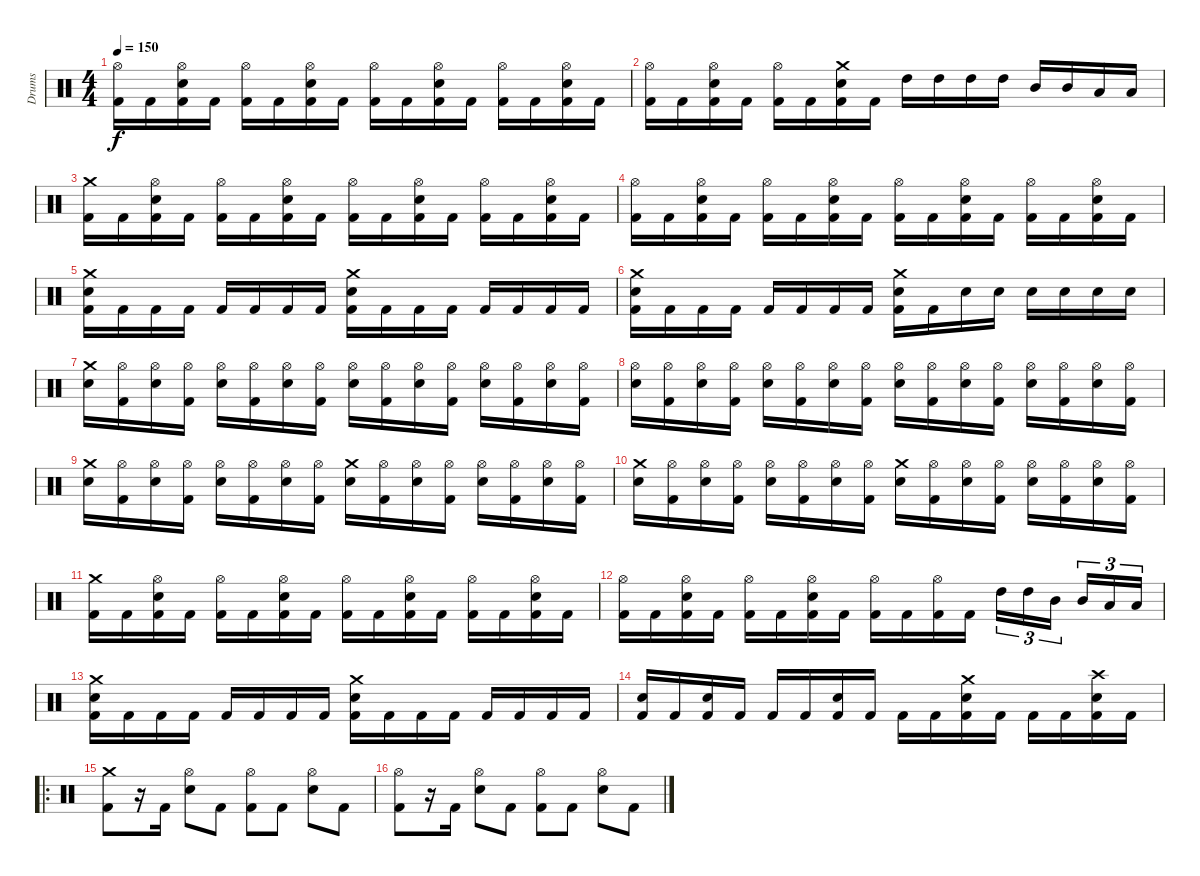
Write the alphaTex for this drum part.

\track ("Drums" "Drums") {instrument percussion}
\staff {score}
\articulation defaults
\ts (4 4)
\tempo 150
\clef neutral
\ks c
("Hi-Hat (open)" "Kick (hit) 2").16{dy f} "Kick (hit) 2".16 ("Hi-Hat (open)" "Electric Snare (hit)" "Kick (hit) 2").16 "Kick (hit) 2".16 ("Hi-Hat (open)" "Kick (hit) 2").16 "Kick (hit) 2".16 ("Hi-Hat (open)" "Electric Snare (hit)" "Kick (hit) 2").16 "Kick (hit) 2".16 ("Hi-Hat (open)" "Kick (hit) 2").16 "Kick (hit) 2".16 ("Hi-Hat (open)" "Electric Snare (hit)" "Kick (hit) 2").16 "Kick (hit) 2".16 ("Hi-Hat (open)" "Kick (hit) 2").16 "Kick (hit) 2".16 ("Hi-Hat (open)" "Electric Snare (hit)" "Kick (hit) 2").16 "Kick (hit) 2".16 |
("Hi-Hat (open)" "Kick (hit) 2").16 "Kick (hit) 2".16 ("Hi-Hat (open)" "Electric Snare (hit)" "Kick (hit) 2").16 "Kick (hit) 2".16 ("Hi-Hat (open)" "Kick (hit) 2").16 "Kick (hit) 2".16 ("Crash medium (hit)" "Electric Snare (hit)" "Kick (hit) 2").16 "Kick (hit) 2".16 "High Tom (hit)".16 "High Tom (hit)".16 "High Tom (hit)".16 "High Tom (hit)".16 "Mid Tom (hit)".16 "Mid Tom (hit)".16 "Low Tom (hit)".16 "Low Tom (hit)".16 |
("Crash medium (hit)" "Kick (hit) 2").16 "Kick (hit) 2".16 ("Hi-Hat (open)" "Electric Snare (hit)" "Kick (hit) 2").16 "Kick (hit) 2".16 ("Hi-Hat (open)" "Kick (hit) 2").16 "Kick (hit) 2".16 ("Hi-Hat (open)" "Electric Snare (hit)" "Kick (hit) 2").16 "Kick (hit) 2".16 ("Hi-Hat (open)" "Kick (hit) 2").16 "Kick (hit) 2".16 ("Hi-Hat (open)" "Electric Snare (hit)" "Kick (hit) 2").16 "Kick (hit) 2".16 ("Hi-Hat (open)" "Kick (hit) 2").16 "Kick (hit) 2".16 ("Hi-Hat (open)" "Electric Snare (hit)" "Kick (hit) 2").16 "Kick (hit) 2".16 |
("Hi-Hat (open)" "Kick (hit) 2").16 "Kick (hit) 2".16 ("Hi-Hat (open)" "Electric Snare (hit)" "Kick (hit) 2").16 "Kick (hit) 2".16 ("Hi-Hat (open)" "Kick (hit) 2").16 "Kick (hit) 2".16 ("Hi-Hat (open)" "Electric Snare (hit)" "Kick (hit) 2").16 "Kick (hit) 2".16 ("Hi-Hat (open)" "Kick (hit) 2").16 "Kick (hit) 2".16 ("Hi-Hat (open)" "Electric Snare (hit)" "Kick (hit) 2").16 "Kick (hit) 2".16 ("Hi-Hat (open)" "Kick (hit) 2").16 "Kick (hit) 2".16 ("Hi-Hat (open)" "Electric Snare (hit)" "Kick (hit) 2").16 "Kick (hit) 2".16 |
("Crash medium (hit)" "Electric Snare (hit)" "Kick (hit) 2").16 "Kick (hit) 2".16 "Kick (hit) 2".16 "Kick (hit) 2".16 "Kick (hit) 2".16 "Kick (hit) 2".16 "Kick (hit) 2".16 "Kick (hit) 2".16 ("Crash medium (hit)" "Electric Snare (hit)" "Kick (hit) 2").16 "Kick (hit) 2".16 "Kick (hit) 2".16 "Kick (hit) 2".16 "Kick (hit) 2".16 "Kick (hit) 2".16 "Kick (hit) 2".16 "Kick (hit) 2".16 |
("Crash medium (hit)" "Electric Snare (hit)" "Kick (hit) 2").16 "Kick (hit) 2".16 "Kick (hit) 2".16 "Kick (hit) 2".16 "Kick (hit) 2".16 "Kick (hit) 2".16 "Kick (hit) 2".16 "Kick (hit) 2".16 ("Crash medium (hit)" "Electric Snare (hit)" "Kick (hit) 2").16 "Kick (hit) 2".16 "Electric Snare (hit)".16 "Electric Snare (hit)".16 "Electric Snare (hit)".16 "Electric Snare (hit)".16 "Electric Snare (hit)".16 "Electric Snare (hit)".16 |
("Crash medium (hit)" "Electric Snare (hit)").16 ("Hi-Hat (open)" "Kick (hit) 2").16 ("Hi-Hat (open)" "Electric Snare (hit)").16 ("Hi-Hat (open)" "Kick (hit) 2").16 ("Hi-Hat (open)" "Electric Snare (hit)").16 ("Hi-Hat (open)" "Kick (hit) 2").16 ("Hi-Hat (open)" "Electric Snare (hit)").16 ("Hi-Hat (open)" "Kick (hit) 2").16 ("Hi-Hat (open)" "Electric Snare (hit)").16 ("Hi-Hat (open)" "Kick (hit) 2").16 ("Hi-Hat (open)" "Electric Snare (hit)").16 ("Hi-Hat (open)" "Kick (hit) 2").16 ("Hi-Hat (open)" "Electric Snare (hit)").16 ("Hi-Hat (open)" "Kick (hit) 2").16 ("Hi-Hat (open)" "Electric Snare (hit)").16 ("Hi-Hat (open)" "Kick (hit) 2").16 |
("Hi-Hat (open)" "Electric Snare (hit)").16 ("Hi-Hat (open)" "Kick (hit) 2").16 ("Hi-Hat (open)" "Electric Snare (hit)").16 ("Hi-Hat (open)" "Kick (hit) 2").16 ("Hi-Hat (open)" "Electric Snare (hit)").16 ("Hi-Hat (open)" "Kick (hit) 2").16 ("Hi-Hat (open)" "Electric Snare (hit)").16 ("Hi-Hat (open)" "Kick (hit) 2").16 ("Hi-Hat (open)" "Electric Snare (hit)").16 ("Hi-Hat (open)" "Kick (hit) 2").16 ("Hi-Hat (open)" "Electric Snare (hit)").16 ("Hi-Hat (open)" "Kick (hit) 2").16 ("Hi-Hat (open)" "Electric Snare (hit)").16 ("Hi-Hat (open)" "Kick (hit) 2").16 ("Hi-Hat (open)" "Electric Snare (hit)").16 ("Hi-Hat (open)" "Kick (hit) 2").16 |
("Crash medium (hit)" "Electric Snare (hit)").16 ("Hi-Hat (open)" "Kick (hit) 2").16 ("Hi-Hat (open)" "Electric Snare (hit)").16 ("Hi-Hat (open)" "Kick (hit) 2").16 ("Hi-Hat (open)" "Electric Snare (hit)").16 ("Hi-Hat (open)" "Kick (hit) 2").16 ("Hi-Hat (open)" "Electric Snare (hit)").16 ("Hi-Hat (open)" "Kick (hit) 2").16 ("Crash medium (hit)" "Electric Snare (hit)").16 ("Hi-Hat (open)" "Kick (hit) 2").16 ("Hi-Hat (open)" "Electric Snare (hit)").16 ("Hi-Hat (open)" "Kick (hit) 2").16 ("Hi-Hat (open)" "Electric Snare (hit)").16 ("Hi-Hat (open)" "Kick (hit) 2").16 ("Hi-Hat (open)" "Electric Snare (hit)").16 ("Hi-Hat (open)" "Kick (hit) 2").16 |
("Crash medium (hit)" "Electric Snare (hit)").16 ("Hi-Hat (open)" "Kick (hit) 2").16 ("Hi-Hat (open)" "Electric Snare (hit)").16 ("Hi-Hat (open)" "Kick (hit) 2").16 ("Hi-Hat (open)" "Electric Snare (hit)").16 ("Hi-Hat (open)" "Kick (hit) 2").16 ("Hi-Hat (open)" "Electric Snare (hit)").16 ("Hi-Hat (open)" "Kick (hit) 2").16 ("Crash medium (hit)" "Electric Snare (hit)").16 ("Hi-Hat (open)" "Kick (hit) 2").16 ("Hi-Hat (open)" "Electric Snare (hit)").16 ("Hi-Hat (open)" "Kick (hit) 2").16 ("Hi-Hat (open)" "Electric Snare (hit)").16 ("Hi-Hat (open)" "Kick (hit) 2").16 ("Hi-Hat (open)" "Electric Snare (hit)").16 ("Hi-Hat (open)" "Kick (hit) 2").16 |
("Crash medium (hit)" "Kick (hit) 2").16 "Kick (hit) 2".16 ("Hi-Hat (open)" "Electric Snare (hit)" "Kick (hit) 2").16 "Kick (hit) 2".16 ("Hi-Hat (open)" "Kick (hit) 2").16 "Kick (hit) 2".16 ("Hi-Hat (open)" "Electric Snare (hit)" "Kick (hit) 2").16 "Kick (hit) 2".16 ("Hi-Hat (open)" "Kick (hit) 2").16 "Kick (hit) 2".16 ("Hi-Hat (open)" "Electric Snare (hit)" "Kick (hit) 2").16 "Kick (hit) 2".16 ("Hi-Hat (open)" "Kick (hit) 2").16 "Kick (hit) 2".16 ("Hi-Hat (open)" "Electric Snare (hit)" "Kick (hit) 2").16 "Kick (hit) 2".16 |
("Hi-Hat (open)" "Kick (hit) 2").16 "Kick (hit) 2".16 ("Hi-Hat (open)" "Electric Snare (hit)" "Kick (hit) 2").16 "Kick (hit) 2".16 ("Hi-Hat (open)" "Kick (hit) 2").16 "Kick (hit) 2".16 ("Hi-Hat (open)" "Electric Snare (hit)" "Kick (hit) 2").16 "Kick (hit) 2".16 ("Hi-Hat (open)" "Kick (hit) 2").16 "Kick (hit) 2".16 ("Hi-Hat (open)" "Kick (hit) 2").16 "Kick (hit) 2".16 "High Tom (hit)".16{tu (3 2)} "High Tom (hit)".16{tu (3 2)} "Mid Tom (hit)".16{tu (3 2)} "Mid Tom (hit)".16{tu (3 2)} "Low Tom (hit)".16{tu (3 2)} "Low Tom (hit)".16{tu (3 2)} |
("Crash medium (hit)" "Electric Snare (hit)" "Kick (hit) 2").16 "Kick (hit) 2".16 "Kick (hit) 2".16 "Kick (hit) 2".16 "Kick (hit) 2".16 "Kick (hit) 2".16 "Kick (hit) 2".16 "Kick (hit) 2".16 ("Crash medium (hit)" "Electric Snare (hit)" "Kick (hit) 2").16 "Kick (hit) 2".16 "Kick (hit) 2".16 "Kick (hit) 2".16 "Kick (hit) 2".16 "Kick (hit) 2".16 "Kick (hit) 2".16 "Kick (hit) 2".16 |
("Electric Snare (hit)" "Kick (hit) 2").16 "Kick (hit) 2".16 ("Electric Snare (hit)" "Kick (hit) 2").16 "Kick (hit) 2".16 "Kick (hit) 2".16 "Kick (hit) 2".16 ("Electric Snare (hit)" "Kick (hit) 2").16 "Kick (hit) 2".16 "Kick (hit) 2".16 "Kick (hit) 2".16 ("Crash medium (hit)" "Electric Snare (hit)" "Kick (hit) 2").16 "Kick (hit) 2".16 "Kick (hit) 2".16 "Kick (hit) 2".16 ("Crash high (hit)" "Electric Snare (hit)" "Kick (hit) 2").16 "Kick (hit) 2".16 |
\ro
("Crash medium (hit)" "Kick (hit) 2").8 r.16 "Kick (hit) 2".16 ("Hi-Hat (open)" "Electric Snare (hit)").8 "Kick (hit) 2".8 ("Hi-Hat (open)" "Kick (hit) 2").8 "Kick (hit) 2".8 ("Hi-Hat (open)" "Electric Snare (hit)").8 "Kick (hit) 2".8 |
("Hi-Hat (open)" "Kick (hit) 2").8 r.16 "Kick (hit) 2".16 ("Hi-Hat (open)" "Electric Snare (hit)").8 "Kick (hit) 2".8 ("Hi-Hat (open)" "Kick (hit) 2").8 "Kick (hit) 2".8 ("Hi-Hat (open)" "Electric Snare (hit)").8 "Kick (hit) 2".8
